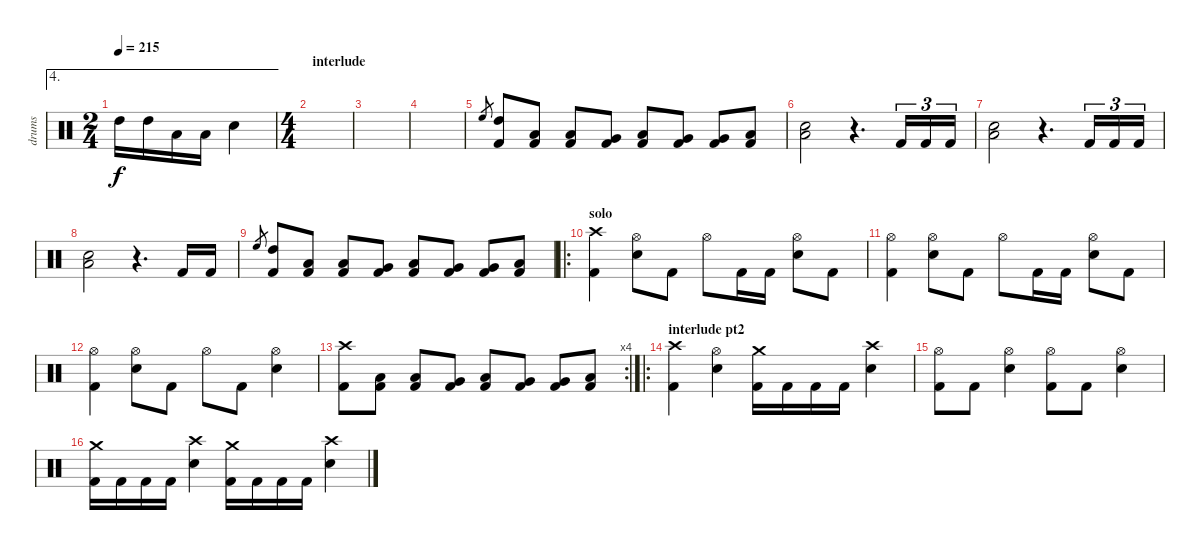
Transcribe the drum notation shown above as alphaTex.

\track ("drums" "drums") {instrument percussion}
\staff {score}
\articulation defaults
\ae 4
\ts (2 4)
\tempo 215
\clef neutral
\ks c "High Tom (hit)".16{dy f} "High Tom (hit)".16 "Low Tom (hit)".16 "Low Tom (hit)".16 "Electric Snare (hit)".4
|
\ts (4 4)
\section ("" "interlude")
|
|
|
"High Floor Tom (hit)".8{gr} ("High Tom (hit)" "Kick (hit) 2").8 ("Low Tom (hit)" "Kick (hit) 2").8 ("Low Tom (hit)" "Kick (hit) 2").8 ("Very Low Tom (hit)" "Kick (hit) 2").8 ("Low Tom (hit)" "Kick (hit) 2").8 ("Very Low Tom (hit)" "Kick (hit) 2").8 ("Very Low Tom (hit)" "Kick (hit) 2").8 ("Low Floor Tom (hit)" "Kick (hit) 2").8 |
("Electric Snare (hit)" "Low Floor Tom (hit)").2 r.4{d} "Kick (hit) 2".16{tu (3 2)} "Kick (hit) 2".16{tu (3 2)} "Kick (hit) 2".16{tu (3 2)} |
("Electric Snare (hit)" "Low Floor Tom (hit)").2 r.4{d} "Kick (hit) 2".16{tu (3 2)} "Kick (hit) 2".16{tu (3 2)} "Kick (hit) 2".16{tu (3 2)} |
("Electric Snare (hit)" "Low Floor Tom (hit)").2 r.4{d} "Kick (hit) 2".16 "Kick (hit) 2".16 |
"High Floor Tom (hit)".8{gr} ("High Tom (hit)" "Kick (hit) 2").8 ("Low Tom (hit)" "Kick (hit) 2").8 ("Low Tom (hit)" "Kick (hit) 2").8 ("Very Low Tom (hit)" "Kick (hit) 2").8 ("Low Tom (hit)" "Kick (hit) 2").8 ("Very Low Tom (hit)" "Kick (hit) 2").8 ("Very Low Tom (hit)" "Kick (hit) 2").8 ("Low Floor Tom (hit)" "Kick (hit) 2").8 |
\ro
\section ("" "solo")
("Crash high (hit)" "Kick (hit) 2").4 ("Hi-Hat (open)" "Electric Snare (hit)").8 "Kick (hit) 2".8 "Hi-Hat (open)".8 "Kick (hit) 2".16 "Kick (hit) 2".16 ("Hi-Hat (open)" "Electric Snare (hit)").8 "Kick (hit) 2".8 |
("Hi-Hat (open)" "Kick (hit) 2").4 ("Hi-Hat (open)" "Electric Snare (hit)").8 "Kick (hit) 2".8 "Hi-Hat (open)".8 "Kick (hit) 2".16 "Kick (hit) 2".16 ("Hi-Hat (open)" "Electric Snare (hit)").8 "Kick (hit) 2".8 |
("Hi-Hat (open)" "Kick (hit) 2").4 ("Hi-Hat (open)" "Electric Snare (hit)").8 "Kick (hit) 2".8 "Hi-Hat (open)".8 "Kick (hit) 2".8 ("Hi-Hat (open)" "Electric Snare (hit)").4 |
\rc 4
("Crash high (hit)" "Kick (hit) 2").8 ("Low Tom (hit)" "Kick (hit) 2").8 ("Low Tom (hit)" "Kick (hit) 2").8 ("Very Low Tom (hit)" "Kick (hit) 2").8 ("Low Tom (hit)" "Kick (hit) 2").8 ("Very Low Tom (hit)" "Kick (hit) 2").8 ("Very Low Tom (hit)" "Kick (hit) 2").8 ("Low Floor Tom (hit)" "Kick (hit) 2").8 |
\ro
\section ("" "interlude pt2")
("Crash high (hit)" "Kick (hit) 2").4 ("Hi-Hat (open)" "Electric Snare (hit)").4 ("Crash medium (hit)" "Kick (hit) 2").16 "Kick (hit) 2".16 "Kick (hit) 2".16 "Kick (hit) 2".16 ("Crash high (hit)" "Electric Snare (hit)").4 |
("Hi-Hat (open)" "Kick (hit) 2").8 "Kick (hit) 2".8 ("Hi-Hat (open)" "Electric Snare (hit)").4 ("Hi-Hat (open)" "Kick (hit) 2").8 "Kick (hit) 2".8 ("Hi-Hat (open)" "Electric Snare (hit)").4 |
("Crash medium (hit)" "Kick (hit) 2").16 "Kick (hit) 2".16 "Kick (hit) 2".16 "Kick (hit) 2".16 ("Crash high (hit)" "Electric Snare (hit)").4 ("Crash medium (hit)" "Kick (hit) 2").16 "Kick (hit) 2".16 "Kick (hit) 2".16 "Kick (hit) 2".16 ("Crash high (hit)" "Electric Snare (hit)").4
